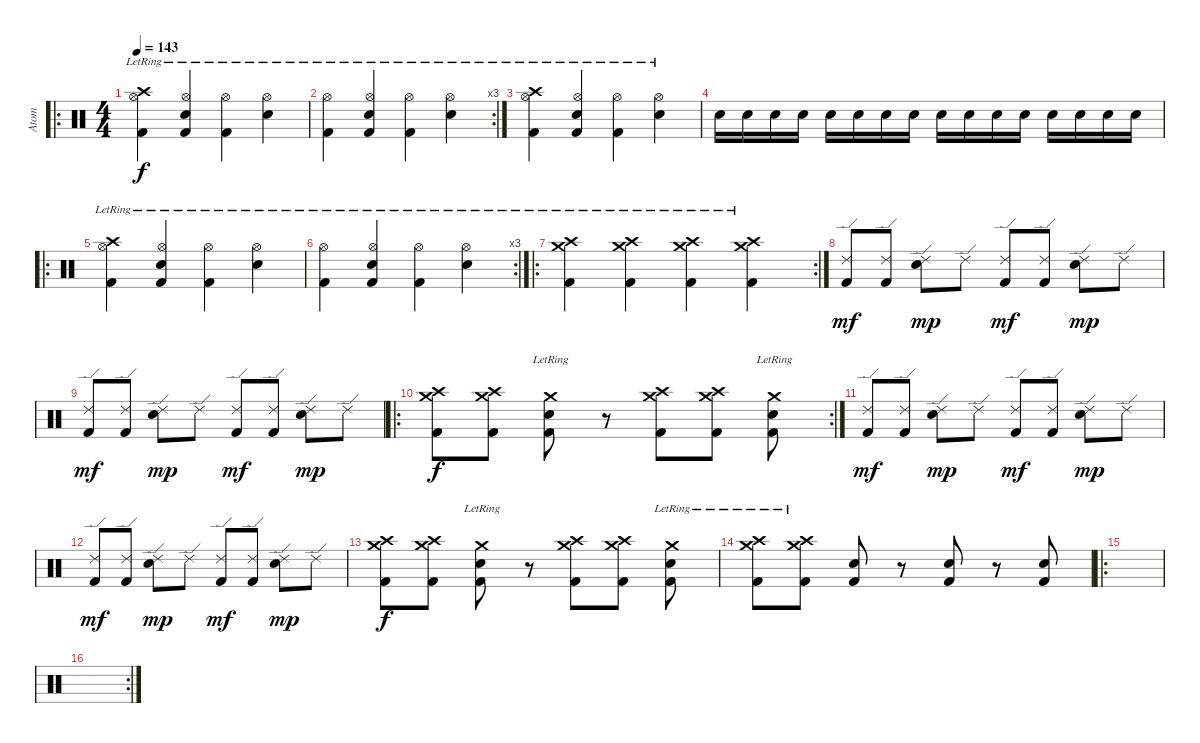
\track ("Atom" "Atom") {instrument percussion}
\staff {score}
\articulation defaults
\ro
\ts (4 4)
\tempo 143
\clef neutral
\ks c
("Kick (hit) 2" "Hi-Hat (open)"{lr} "Crash high (hit)").4{dy f} ("Kick (hit) 2" "Hi-Hat (open)"{lr} "Snare (hit) 2").4 ("Kick (hit) 2" "Hi-Hat (open)"{lr}).4 ("Hi-Hat (open)"{lr} "Snare (hit) 2").4 |
\rc 3
("Kick (hit) 2" "Hi-Hat (open)"{lr}).4 ("Kick (hit) 2" "Hi-Hat (open)"{lr} "Snare (hit) 2").4 ("Kick (hit) 2" "Hi-Hat (open)"{lr}).4 ("Hi-Hat (open)"{lr} "Snare (hit) 2").4 |
("Kick (hit) 2" "Hi-Hat (open)"{lr} "Crash high (hit)").4 ("Kick (hit) 2" "Hi-Hat (open)"{lr} "Snare (hit) 2").4 ("Kick (hit) 2" "Hi-Hat (open)"{lr}).4 ("Hi-Hat (open)"{lr} "Snare (hit) 2").4 |
"Snare (hit) 2".16 "Snare (hit) 2".16 "Snare (hit) 2".16 "Snare (hit) 2".16 "Snare (hit) 2".16 "Snare (hit) 2".16 "Snare (hit) 2".16 "Snare (hit) 2".16 "Snare (hit) 2".16 "Snare (hit) 2".16 "Snare (hit) 2".16 "Snare (hit) 2".16 "Snare (hit) 2".16 "Snare (hit) 2".16 "Snare (hit) 2".16 "Snare (hit) 2".16 |
\ro
("Kick (hit) 2" "Hi-Hat (open)"{lr} "Crash high (hit)").4 ("Kick (hit) 2" "Hi-Hat (open)"{lr} "Snare (hit) 2").4 ("Kick (hit) 2" "Hi-Hat (open)"{lr}).4 ("Hi-Hat (open)"{lr} "Snare (hit) 2").4 |
\rc 3
("Kick (hit) 2" "Hi-Hat (open)"{lr}).4 ("Kick (hit) 2" "Hi-Hat (open)"{lr} "Snare (hit) 2").4 ("Kick (hit) 2" "Hi-Hat (open)"{lr}).4 ("Hi-Hat (open)"{lr} "Snare (hit) 2").4 |
\ro
\rc 2
("Kick (hit) 2" "Crash medium (hit)"{lr} "Crash high (hit)").4 ("Kick (hit) 2" "Crash medium (hit)"{lr} "Crash high (hit)").4 ("Kick (hit) 2" "Crash medium (hit)"{lr} "Crash high (hit)").4 ("Kick (hit) 2" "Crash medium (hit)"{lr} "Crash high (hit)").4 |
("Kick (hit) 2" "Ride (edge) 2").8{dy mf} ("Kick (hit) 2" "Ride (edge) 2").8 ("Ride (edge) 2" "Snare (hit) 2").8{dy mp} "Ride (edge) 2".8 ("Kick (hit) 2" "Ride (edge) 2").8{dy mf} ("Kick (hit) 2" "Ride (edge) 2").8 ("Ride (edge) 2" "Snare (hit) 2").8{dy mp} "Ride (edge) 2".8 |
("Kick (hit) 2" "Ride (edge) 2").8{dy mf} ("Kick (hit) 2" "Ride (edge) 2").8 ("Ride (edge) 2" "Snare (hit) 2").8{dy mp} "Ride (edge) 2".8 ("Kick (hit) 2" "Ride (edge) 2").8{dy mf} ("Kick (hit) 2" "Ride (edge) 2").8 ("Ride (edge) 2" "Snare (hit) 2").8{dy mp} "Ride (edge) 2".8 |
\ro
\rc 2
("Kick (hit) 2" "Crash medium (hit)" "Crash high (hit)").8{dy f} ("Kick (hit) 2" "Crash medium (hit)" "Crash high (hit)").8 ("Kick (hit) 2" "Crash medium (hit)"{lr} "Snare (hit) 2").8 r.8 ("Kick (hit) 2" "Crash medium (hit)" "Crash high (hit)").8 ("Kick (hit) 2" "Crash medium (hit)" "Crash high (hit)").8 ("Kick (hit) 2" "Crash medium (hit)"{lr} "Snare (hit) 2").8 |
("Kick (hit) 2" "Ride (edge) 2").8{dy mf} ("Kick (hit) 2" "Ride (edge) 2").8 ("Ride (edge) 2" "Snare (hit) 2").8{dy mp} "Ride (edge) 2".8 ("Kick (hit) 2" "Ride (edge) 2").8{dy mf} ("Kick (hit) 2" "Ride (edge) 2").8 ("Ride (edge) 2" "Snare (hit) 2").8{dy mp} "Ride (edge) 2".8 |
("Kick (hit) 2" "Ride (edge) 2").8{dy mf} ("Kick (hit) 2" "Ride (edge) 2").8 ("Ride (edge) 2" "Snare (hit) 2").8{dy mp} "Ride (edge) 2".8 ("Kick (hit) 2" "Ride (edge) 2").8{dy mf} ("Kick (hit) 2" "Ride (edge) 2").8 ("Ride (edge) 2" "Snare (hit) 2").8{dy mp} "Ride (edge) 2".8 |
("Kick (hit) 2" "Crash medium (hit)" "Crash high (hit)").8{dy f} ("Kick (hit) 2" "Crash medium (hit)" "Crash high (hit)").8 ("Kick (hit) 2" "Crash medium (hit)"{lr} "Snare (hit) 2").8 r.8 ("Kick (hit) 2" "Crash medium (hit)" "Crash high (hit)").8 ("Kick (hit) 2" "Crash medium (hit)" "Crash high (hit)").8 ("Kick (hit) 2" "Crash medium (hit)"{lr} "Snare (hit) 2").8 |
("Kick (hit) 2" "Crash medium (hit)"{lr} "Crash high (hit)"{lr}).8 ("Kick (hit) 2" "Crash medium (hit)"{lr} "Crash high (hit)"{lr}).8 ("Kick (hit) 2" "Snare (hit) 2").8 r.8 ("Kick (hit) 2" "Snare (hit) 2").8 r.8 ("Kick (hit) 2" "Snare (hit) 2").8 |
\ro
|
\rc 2
